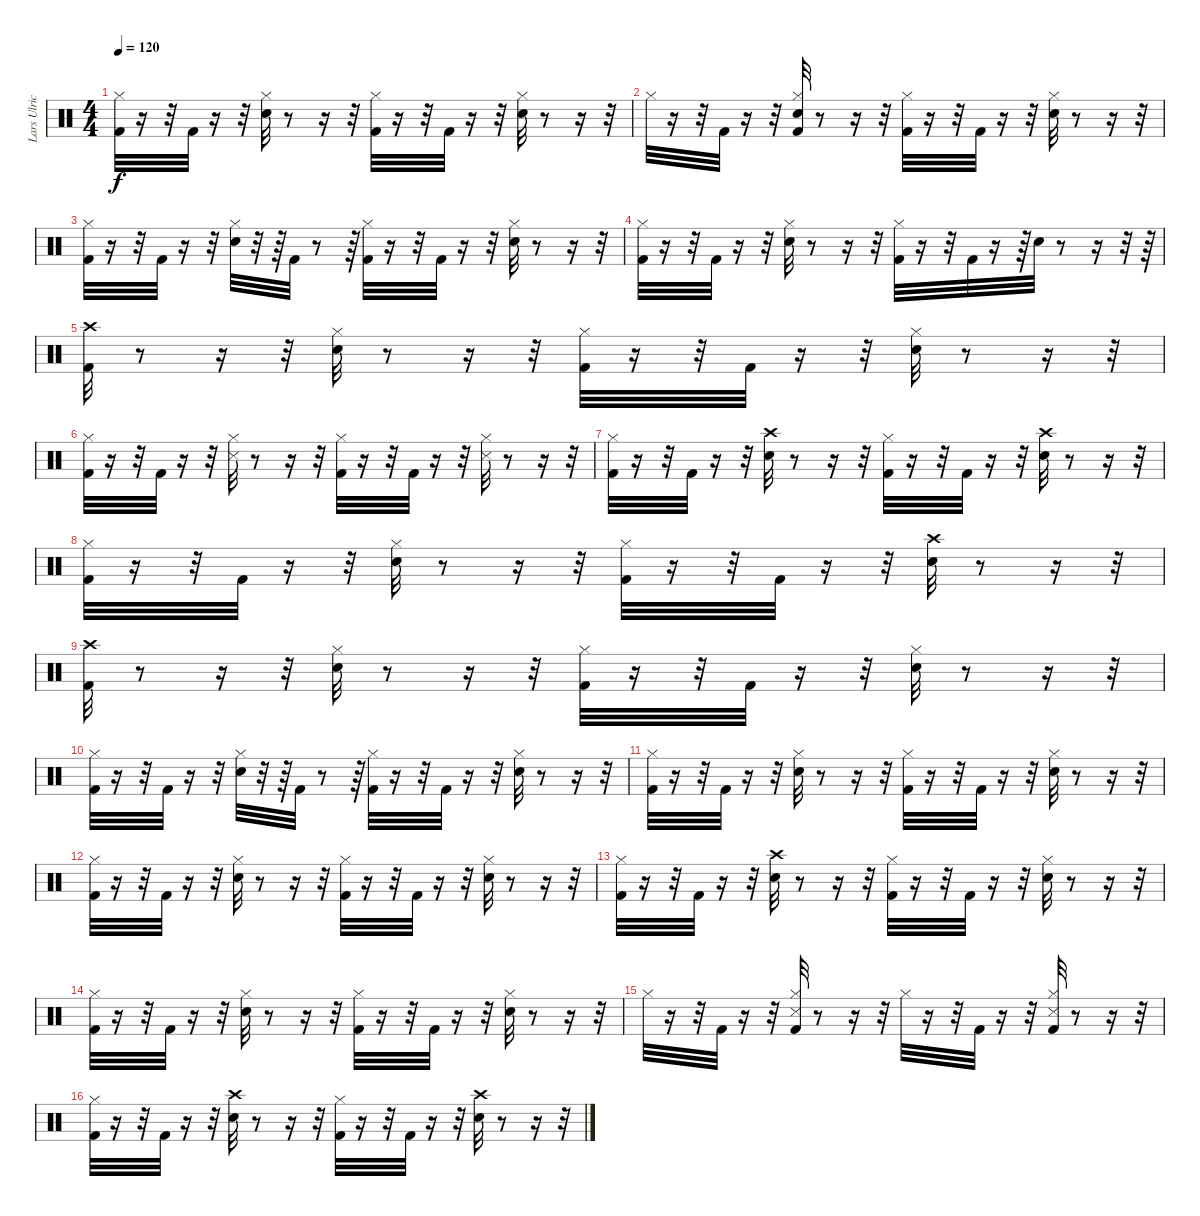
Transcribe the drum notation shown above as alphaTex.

\track ("Lars Ulrich (Drums)" "Lars Ulric") {instrument percussion}
\staff {score}
\articulation defaults
\ts (4 4)
\tempo 120
\clef neutral
\ks c
("Kick (hit) 2" "Hi-Hat (closed)").32{dy f} r.16 r.32 "Kick (hit) 2".32 r.16 r.32 ("Snare (hit) 2" "Hi-Hat (closed)").32 r.8 r.16 r.32 ("Kick (hit) 2" "Hi-Hat (closed)").32 r.16 r.32 "Kick (hit) 2".32 r.16 r.32 ("Snare (hit) 2" "Hi-Hat (closed)").32 r.8 r.16 r.32 |
"Hi-Hat (closed)".32 r.16 r.32 "Kick (hit) 2".32 r.16 r.32 ("Kick (hit) 2" "Snare (hit) 2" "Hi-Hat (closed)").32 r.8 r.16 r.32 ("Kick (hit) 2" "Hi-Hat (closed)").32 r.16 r.32 "Kick (hit) 2".32 r.16 r.32 ("Hi-Hat (closed)" "Snare (hit) 2").32 r.8 r.16 r.32 |
("Kick (hit) 2" "Hi-Hat (closed)").32 r.16 r.32 "Kick (hit) 2".32 r.16 r.32 ("Snare (hit) 2" "Hi-Hat (closed)").32 r.32 r.64 "Kick (hit) 2".32 r.8 r.64 ("Kick (hit) 2" "Hi-Hat (closed)").32 r.16 r.32 "Kick (hit) 2".32 r.16 r.32 ("Snare (hit) 2" "Hi-Hat (closed)").32 r.8 r.16 r.32 |
("Kick (hit) 2" "Hi-Hat (closed)").32 r.16 r.32 "Kick (hit) 2".32 r.16 r.32 ("Snare (hit) 2" "Hi-Hat (closed)").32 r.8 r.16 r.32 ("Kick (hit) 2" "Hi-Hat (closed)").32 r.16 r.32 "Kick (hit) 2".32 r.16 r.64 "Snare (hit) 2".32 r.8 r.16 r.32 r.64 |
("Kick (hit) 2" "Crash high (hit)").32 r.8 r.16 r.32 ("Hi-Hat (closed)" "Snare (hit) 2").32 r.8 r.16 r.32 ("Hi-Hat (closed)" "Kick (hit) 2").32 r.16 r.32 "Kick (hit) 2".32 r.16 r.32 ("Hi-Hat (closed)" "Snare (hit) 2").32 r.8 r.16 r.32 |
("Kick (hit) 2" "Hi-Hat (closed)").32 r.16 r.32 "Kick (hit) 2".32 r.16 r.32 ("Snare (side stick) 3" "Hi-Hat (closed)").32 r.8 r.16 r.32 ("Kick (hit) 2" "Hi-Hat (closed)").32 r.16 r.32 "Kick (hit) 2".32 r.16 r.32 ("Snare (side stick) 3" "Hi-Hat (closed)").32 r.8 r.16 r.32 |
("Kick (hit) 2" "Hi-Hat (closed)").32 r.16 r.32 "Kick (hit) 2".32 r.16 r.32 ("Crash high (hit)" "Snare (hit) 2").32 r.8 r.16 r.32 ("Kick (hit) 2" "Hi-Hat (closed)").32 r.16 r.32 "Kick (hit) 2".32 r.16 r.32 ("Crash high (hit)" "Snare (hit) 2").32 r.8 r.16 r.32 |
("Hi-Hat (closed)" "Kick (hit) 2").32 r.16 r.32 "Kick (hit) 2".32 r.16 r.32 ("Snare (hit) 2" "Hi-Hat (closed)").32 r.8 r.16 r.32 ("Hi-Hat (closed)" "Kick (hit) 2").32 r.16 r.32 "Kick (hit) 2".32 r.16 r.32 ("Crash high (hit)" "Snare (hit) 2").32 r.8 r.16 r.32 |
("Kick (hit) 2" "Crash high (hit)").32 r.8 r.16 r.32 ("Hi-Hat (closed)" "Snare (hit) 2").32 r.8 r.16 r.32 ("Hi-Hat (closed)" "Kick (hit) 2").32 r.16 r.32 "Kick (hit) 2".32 r.16 r.32 ("Hi-Hat (closed)" "Snare (hit) 2").32 r.8 r.16 r.32 |
("Kick (hit) 2" "Hi-Hat (closed)").32 r.16 r.32 "Kick (hit) 2".32 r.16 r.32 ("Snare (hit) 2" "Hi-Hat (closed)").32 r.32 r.64 "Kick (hit) 2".32 r.8 r.64 ("Kick (hit) 2" "Hi-Hat (closed)").32 r.16 r.32 "Kick (hit) 2".32 r.16 r.32 ("Snare (hit) 2" "Hi-Hat (closed)").32 r.8 r.16 r.32 |
("Kick (hit) 2" "Hi-Hat (closed)").32 r.16 r.32 "Kick (hit) 2".32 r.16 r.32 ("Snare (hit) 2" "Hi-Hat (closed)").32 r.8 r.16 r.32 ("Kick (hit) 2" "Hi-Hat (closed)").32 r.16 r.32 "Kick (hit) 2".32 r.16 r.32 ("Snare (hit) 2" "Hi-Hat (closed)").32 r.8 r.16 r.32 |
("Kick (hit) 2" "Hi-Hat (closed)").32 r.16 r.32 "Kick (hit) 2".32 r.16 r.32 ("Snare (hit) 2" "Hi-Hat (closed)").32 r.8 r.16 r.32 ("Kick (hit) 2" "Hi-Hat (closed)").32 r.16 r.32 "Kick (hit) 2".32 r.16 r.32 ("Snare (hit) 2" "Hi-Hat (closed)").32 r.8 r.16 r.32 |
("Kick (hit) 2" "Hi-Hat (closed)").32 r.16 r.32 "Kick (hit) 2".32 r.16 r.32 ("Crash high (hit)" "Snare (hit) 2").32 r.8 r.16 r.32 ("Kick (hit) 2" "Hi-Hat (closed)").32 r.16 r.32 "Kick (hit) 2".32 r.16 r.32 ("Snare (hit) 2" "Hi-Hat (closed)").32 r.8 r.16 r.32 |
("Kick (hit) 2" "Hi-Hat (closed)").32 r.16 r.32 "Kick (hit) 2".32 r.16 r.32 ("Snare (hit) 2" "Hi-Hat (closed)").32 r.8 r.16 r.32 ("Kick (hit) 2" "Hi-Hat (closed)").32 r.16 r.32 "Kick (hit) 2".32 r.16 r.32 ("Snare (hit) 2" "Hi-Hat (closed)").32 r.8 r.16 r.32 |
"Hi-Hat (closed)".32 r.16 r.32 "Kick (hit) 2".32 r.16 r.32 ("Kick (hit) 2" "Snare (side stick) 3" "Hi-Hat (closed)").32 r.8 r.16 r.32 "Hi-Hat (closed)".32 r.16 r.32 "Kick (hit) 2".32 r.16 r.32 ("Kick (hit) 2" "Snare (side stick) 3" "Hi-Hat (closed)").32 r.8 r.16 r.32 |
("Kick (hit) 2" "Hi-Hat (closed)").32 r.16 r.32 "Kick (hit) 2".32 r.16 r.32 ("Crash high (hit)" "Snare (hit) 2").32 r.8 r.16 r.32 ("Kick (hit) 2" "Hi-Hat (closed)").32 r.16 r.32 "Kick (hit) 2".32 r.16 r.32 ("Crash high (hit)" "Snare (hit) 2").32 r.8 r.16 r.32
